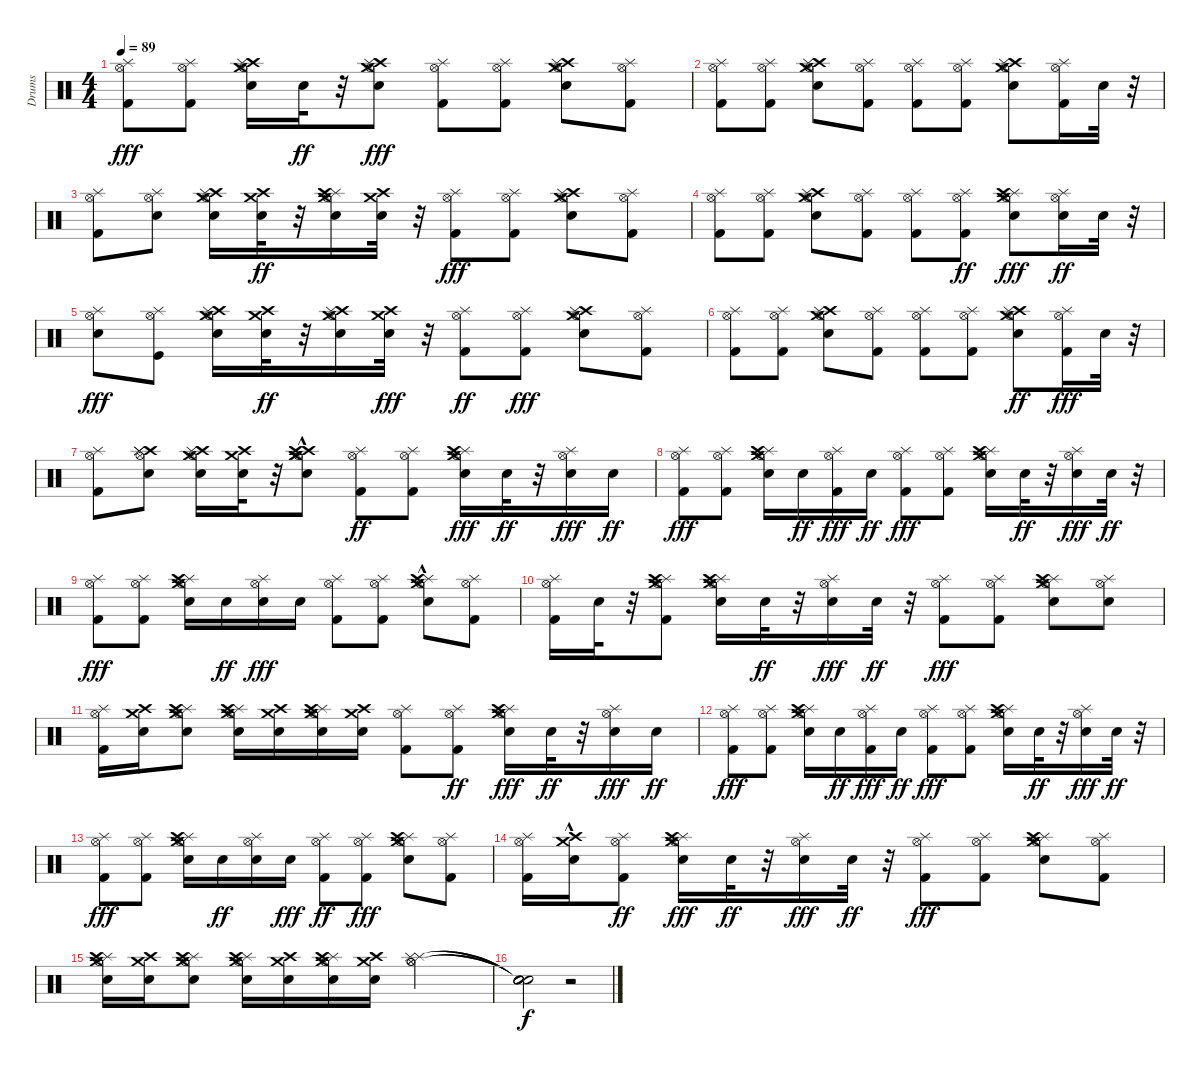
\track ("Drums" "Drums") {instrument percussion}
\staff {score}
\articulation defaults
\ts (4 4)
\tempo 89
\clef neutral
\ks c
("Kick (hit) 2" "Splash (hit)" "Hi-Hat (open)").8{dy fff} ("Kick (hit) 2" "Splash (hit)" "Hi-Hat (open)").8 ("Crash high (hit)" "Crash medium (hit)" "Splash (hit)" "Snare (hit) 2" "Hi-Hat (open)").16 "Snare (hit) 2".32{dy ff} r.32 ("Crash medium (hit)" "Crash high (hit)" "Snare (hit) 2" "Splash (hit)" "Hi-Hat (open)").8{dy fff} ("Kick (hit) 2" "Hi-Hat (open)" "Splash (hit)").8 ("Kick (hit) 2" "Splash (hit)" "Hi-Hat (open)").8 ("Crash medium (hit)" "Crash high (hit)" "Splash (hit)" "Hi-Hat (open)" "Snare (hit) 2").8 ("Kick (hit) 2" "Splash (hit)" "Hi-Hat (open)").8 |
("Kick (hit) 2" "Splash (hit)" "Hi-Hat (open)").8 ("Kick (hit) 2" "Splash (hit)" "Hi-Hat (open)").8 ("Crash high (hit)" "Hi-Hat (open)" "Crash medium (hit)" "Snare (hit) 2" "Splash (hit)").8 ("Kick (hit) 2" "Splash (hit)" "Hi-Hat (open)").8 ("Kick (hit) 2" "Splash (hit)" "Hi-Hat (open)").8 ("Kick (hit) 2" "Hi-Hat (open)" "Splash (hit)").8 ("Crash high (hit)" "Crash medium (hit)" "Snare (hit) 2" "Splash (hit)" "Hi-Hat (open)").8 ("Kick (hit) 2" "Splash (hit)" "Hi-Hat (open)").16 "Snare (hit) 2".32 r.32 |
("Kick (hit) 2" "Splash (hit)" "Hi-Hat (open)").8 ("Snare (hit) 2" "Splash (hit)" "Hi-Hat (open)").8 ("Crash medium (hit)" "Crash high (hit)" "Snare (hit) 2" "Splash (hit)" "Hi-Hat (open)").16 ("Snare (hit) 2" "Crash high (hit)" "Crash medium (hit)").32{dy ff} r.32 ("Snare (hit) 2" "Splash (hit)" "Hi-Hat (open)" "Crash high (hit)" "Crash medium (hit)").16 ("Crash high (hit)" "Snare (hit) 2" "Crash medium (hit)").32 r.32 ("Kick (hit) 2" "Splash (hit)" "Hi-Hat (open)").8{dy fff} ("Kick (hit) 2" "Splash (hit)" "Hi-Hat (open)").8 ("Crash medium (hit)" "Crash high (hit)" "Snare (hit) 2" "Splash (hit)" "Hi-Hat (open)").8 ("Kick (hit) 2" "Splash (hit)" "Hi-Hat (open)").8 |
("Kick (hit) 2" "Splash (hit)" "Hi-Hat (open)").8 ("Kick (hit) 2" "Splash (hit)" "Hi-Hat (open)").8 ("Crash high (hit)" "Crash medium (hit)" "Snare (hit) 2" "Splash (hit)" "Hi-Hat (open)").8 ("Kick (hit) 2" "Hi-Hat (open)" "Splash (hit)").8 ("Kick (hit) 2" "Hi-Hat (open)" "Splash (hit)").8 ("Kick (hit) 2" "Hi-Hat (open)" "Splash (hit)").8{dy ff} ("Snare (hit) 2" "Hi-Hat (open)" "Splash (hit)" "Crash medium (hit)" "Crash high (hit)").8{dy fff} ("Snare (hit) 2" "Hi-Hat (open)" "Splash (hit)").16{dy ff} "Snare (hit) 2".32 r.32 |
("Snare (hit) 2" "Splash (hit)" "Hi-Hat (open)").8{dy fff} ("Kick (hit)" "Splash (hit)" "Hi-Hat (open)").8 ("Crash high (hit)" "Crash medium (hit)" "Snare (hit) 2" "Splash (hit)" "Hi-Hat (open)").16 ("Snare (hit) 2" "Crash high (hit)" "Crash medium (hit)").32{dy ff} r.32 ("Crash high (hit)" "Crash medium (hit)" "Snare (hit) 2" "Splash (hit)" "Hi-Hat (open)").16 ("Crash high (hit)" "Crash medium (hit)" "Snare (hit) 2").32{dy fff} r.32 ("Kick (hit) 2" "Hi-Hat (open)" "Splash (hit)").8{dy ff} ("Kick (hit) 2" "Splash (hit)" "Hi-Hat (open)").8{dy fff} ("Crash high (hit)" "Crash medium (hit)" "Snare (hit) 2" "Splash (hit)" "Hi-Hat (open)").8 ("Kick (hit) 2" "Splash (hit)" "Hi-Hat (open)").8 |
("Kick (hit) 2" "Splash (hit)" "Hi-Hat (open)").8 ("Kick (hit) 2" "Splash (hit)" "Hi-Hat (open)").8 ("Crash medium (hit)" "Crash high (hit)" "Snare (hit) 2" "Splash (hit)" "Hi-Hat (open)").8 ("Kick (hit) 2" "Splash (hit)" "Hi-Hat (open)").8 ("Splash (hit)" "Hi-Hat (open)" "Kick (hit) 2").8 ("Splash (hit)" "Hi-Hat (open)" "Kick (hit) 2").8 ("Crash medium (hit)" "Crash high (hit)" "Snare (hit) 2" "Hi-Hat (open)" "Splash (hit)").8{dy ff} ("Kick (hit) 2" "Splash (hit)" "Hi-Hat (open)").16{dy fff} "Snare (hit) 2".32 r.32 |
("Kick (hit) 2" "Hi-Hat (open)" "Splash (hit)").8 ("Crash high (hit)" "Snare (hit) 2" "Splash (hit)" "Splash (hit)" "Hi-Hat (open)").8 ("Crash high (hit)" "Crash medium (hit)" "Snare (hit) 2" "Splash (hit)" "Hi-Hat (open)").16 ("Crash high (hit)" "Snare (hit) 2" "Crash medium (hit)").32 r.32 ("Crash high (hit)" "Crash medium (hit)" "Hi-Hat (open)" "Crash medium (hit)"{hac} "Crash high (hit)"{hac} "Snare (hit) 2").8 ("Kick (hit) 2" "Hi-Hat (open)" "Splash (hit)").8{dy ff} ("Splash (hit)" "Hi-Hat (open)" "Kick (hit) 2").8 ("Snare (hit) 2" "Splash (hit)" "Hi-Hat (open)" "Crash high (hit)" "Crash medium (hit)").16{dy fff} "Snare (hit) 2".32{dy ff} r.32 ("Snare (hit) 2" "Hi-Hat (open)" "Splash (hit)").16{dy fff} "Snare (hit) 2".16{dy ff} |
("Kick (hit) 2" "Splash (hit)" "Hi-Hat (open)").8{dy fff} ("Kick (hit) 2" "Splash (hit)" "Hi-Hat (open)").8 ("Snare (hit) 2" "Splash (hit)" "Hi-Hat (open)" "Crash high (hit)" "Crash medium (hit)").16 "Snare (hit) 2".16{dy ff} ("Kick (hit) 2" "Hi-Hat (open)" "Splash (hit)").16{dy fff} "Snare (hit) 2".16{dy ff} ("Kick (hit) 2" "Splash (hit)" "Hi-Hat (open)").8{dy fff} ("Kick (hit) 2" "Hi-Hat (open)" "Splash (hit)").8 ("Snare (hit) 2" "Splash (hit)" "Hi-Hat (open)" "Crash high (hit)" "Crash medium (hit)").16 "Snare (hit) 2".32{dy ff} r.32 ("Snare (hit) 2" "Hi-Hat (open)" "Splash (hit)").16{dy fff} "Snare (hit) 2".32{dy ff} r.32 |
("Kick (hit) 2" "Splash (hit)" "Hi-Hat (open)").8{dy fff} ("Kick (hit) 2" "Splash (hit)" "Hi-Hat (open)").8 ("Snare (hit) 2" "Splash (hit)" "Hi-Hat (open)" "Crash high (hit)" "Crash medium (hit)").16 "Snare (hit) 2".16{dy ff} ("Snare (hit) 2" "Splash (hit)" "Hi-Hat (open)").16{dy fff} "Snare (hit) 2".16 ("Kick (hit) 2" "Splash (hit)" "Hi-Hat (open)").8 ("Kick (hit) 2" "Splash (hit)" "Hi-Hat (open)").8 ("Snare (hit) 2" "Splash (hit)" "Hi-Hat (open)" "Crash high (hit)"{hac} "Crash medium (hit)"{hac}).8 ("Kick (hit) 2" "Hi-Hat (open)" "Splash (hit)").8 |
("Kick (hit) 2" "Hi-Hat (open)" "Splash (hit)").16 "Snare (hit) 2".32 r.32 ("Kick (hit) 2" "Splash (hit)" "Hi-Hat (open)" "Crash high (hit)" "Crash medium (hit)").8 ("Snare (hit) 2" "Hi-Hat (open)" "Splash (hit)" "Crash high (hit)" "Crash medium (hit)").16 "Snare (hit) 2".32{dy ff} r.32 ("Snare (hit) 2" "Splash (hit)" "Hi-Hat (open)").16{dy fff} "Snare (hit) 2".32{dy ff} r.32 ("Kick (hit) 2" "Splash (hit)" "Hi-Hat (open)").8{dy fff} ("Kick (hit) 2" "Hi-Hat (open)" "Splash (hit)").8 ("Snare (hit) 2" "Hi-Hat (open)" "Splash (hit)" "Crash high (hit)" "Crash medium (hit)").8 ("Snare (hit) 2" "Splash (hit)" "Hi-Hat (open)").8 |
("Kick (hit) 2" "Splash (hit)" "Hi-Hat (open)").16 ("Snare (hit) 2" "Crash high (hit)" "Crash medium (hit)").16 ("Snare (hit) 2" "Splash (hit)" "Hi-Hat (open)" "Crash high (hit)" "Crash medium (hit)").8 ("Snare (hit) 2" "Splash (hit)" "Hi-Hat (open)" "Crash high (hit)" "Crash medium (hit)").16 ("Snare (hit) 2" "Crash high (hit)" "Crash medium (hit)").16 ("Snare (hit) 2" "Splash (hit)" "Hi-Hat (open)" "Crash high (hit)" "Crash medium (hit)").16 ("Snare (hit) 2" "Crash high (hit)" "Crash medium (hit)").16 ("Kick (hit) 2" "Splash (hit)" "Hi-Hat (open)").8 ("Splash (hit)" "Hi-Hat (open)" "Kick (hit) 2").8{dy ff} ("Snare (hit) 2" "Splash (hit)" "Hi-Hat (open)" "Crash high (hit)" "Crash medium (hit)").16{dy fff} "Snare (hit) 2".32{dy ff} r.32 ("Snare (hit) 2" "Splash (hit)" "Hi-Hat (open)").16{dy fff} "Snare (hit) 2".16{dy ff} |
("Kick (hit) 2" "Splash (hit)" "Hi-Hat (open)").8{dy fff} ("Kick (hit) 2" "Hi-Hat (open)" "Splash (hit)").8 ("Snare (hit) 2" "Hi-Hat (open)" "Splash (hit)" "Crash high (hit)" "Crash medium (hit)").16 "Snare (hit) 2".16{dy ff} ("Kick (hit) 2" "Splash (hit)" "Hi-Hat (open)").16{dy fff} "Snare (hit) 2".16{dy ff} ("Kick (hit) 2" "Splash (hit)" "Hi-Hat (open)").8{dy fff} ("Kick (hit) 2" "Splash (hit)" "Hi-Hat (open)").8 ("Snare (hit) 2" "Splash (hit)" "Hi-Hat (open)" "Crash high (hit)" "Crash medium (hit)").16 "Snare (hit) 2".32{dy ff} r.32 ("Snare (hit) 2" "Splash (hit)" "Hi-Hat (open)").16{dy fff} "Snare (hit) 2".32{dy ff} r.32 |
("Kick (hit) 2" "Splash (hit)" "Hi-Hat (open)").8{dy fff} ("Kick (hit) 2" "Splash (hit)" "Hi-Hat (open)").8 ("Snare (hit) 2" "Hi-Hat (open)" "Splash (hit)" "Crash high (hit)" "Crash medium (hit)").16 "Snare (hit) 2".16{dy ff} ("Snare (hit) 2" "Hi-Hat (open)" "Splash (hit)").16 "Snare (hit) 2".16{dy fff} ("Kick (hit) 2" "Hi-Hat (open)" "Splash (hit)").8{dy ff} ("Kick (hit) 2" "Splash (hit)" "Hi-Hat (open)").8{dy fff} ("Snare (hit) 2" "Splash (hit)" "Hi-Hat (open)" "Crash high (hit)" "Crash medium (hit)").8 ("Kick (hit) 2" "Hi-Hat (open)" "Splash (hit)").8 |
("Kick (hit) 2" "Splash (hit)" "Hi-Hat (open)").16 ("Snare (hit) 2" "Crash high (hit)"{hac} "Crash medium (hit)"{hac}).16 ("Kick (hit) 2" "Hi-Hat (open)" "Splash (hit)").8{dy ff} ("Snare (hit) 2" "Splash (hit)" "Hi-Hat (open)" "Crash high (hit)" "Crash medium (hit)").16{dy fff} "Snare (hit) 2".32{dy ff} r.32 ("Snare (hit) 2" "Splash (hit)" "Hi-Hat (open)").16{dy fff} "Snare (hit) 2".32{dy ff} r.32 ("Kick (hit) 2" "Splash (hit)" "Hi-Hat (open)").8{dy fff} ("Kick (hit) 2" "Splash (hit)" "Hi-Hat (open)").8 ("Snare (hit) 2" "Splash (hit)" "Hi-Hat (open)" "Crash high (hit)" "Crash medium (hit)").8 ("Kick (hit) 2" "Splash (hit)" "Hi-Hat (open)").8 |
("Snare (hit) 2" "Splash (hit)" "Hi-Hat (open)" "Crash high (hit)" "Crash medium (hit)").16 ("Snare (hit) 2" "Crash high (hit)" "Crash medium (hit)").16 ("Snare (hit) 2" "Hi-Hat (open)" "Splash (hit)" "Crash high (hit)" "Crash medium (hit)").8 ("Snare (hit) 2" "Hi-Hat (open)" "Splash (hit)" "Crash high (hit)" "Crash medium (hit)").16 ("Snare (hit) 2" "Crash high (hit)" "Crash medium (hit)").16 ("Snare (hit) 2" "Hi-Hat (open)" "Splash (hit)" "Crash high (hit)" "Crash medium (hit)").16 ("Snare (hit) 2" "Crash high (hit)" "Crash medium (hit)").16 ("Hi-Hat (open)" "Splash (hit)" "Hi-Hat (open)" "Splash (hit)").2 |
("Snare (hit)"{t} "Snare (hit)"{t} "Snare (hit)"{t} "Snare (hit)"{t}).2{dy f} r.2
